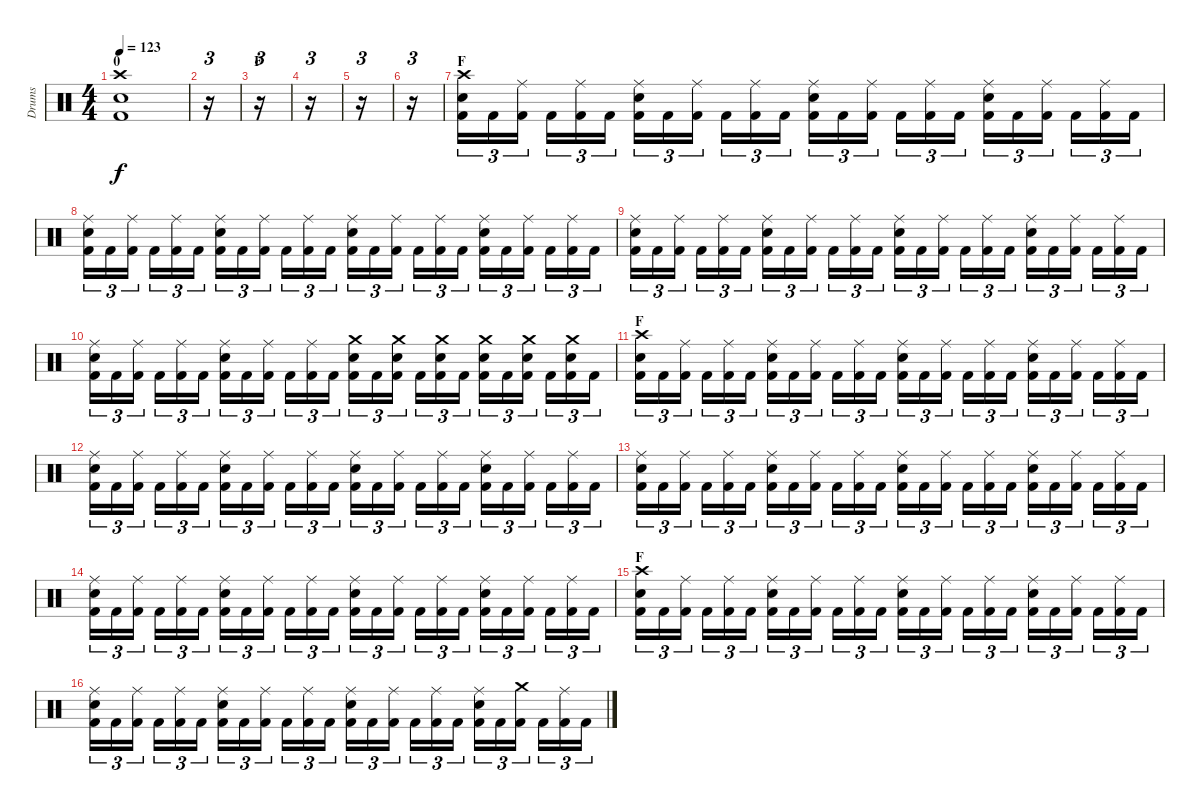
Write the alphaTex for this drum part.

\track ("Drums" "Drums") {instrument percussion}
\staff {score}
\articulation defaults
\ts (4 4)
\section ("" "0")
\tempo 123
\clef neutral
\ks c
("Crash high (hit)" "Snare (hit) 2" "Kick (hit) 2").1{dy f} |
r.16{tu (3 2)} |
\section ("" "F")
r.16{tu (3 2)} |
r.16{tu (3 2)} |
r.16{tu (3 2)} |
r.16{tu (3 2)} |
\section ("" "F")
("Crash high (hit)" "Snare (hit) 2" "Kick (hit) 2").16{tu (3 2)} "Kick (hit) 2".16{tu (3 2)} ("Ride (middle)" "Kick (hit) 2").16{tu (3 2)} "Kick (hit) 2".16{tu (3 2)} ("Ride (middle)" "Kick (hit) 2").16{tu (3 2)} "Kick (hit) 2".16{tu (3 2)} ("Ride (middle)" "Snare (hit) 2" "Kick (hit) 2").16{tu (3 2)} "Kick (hit) 2".16{tu (3 2)} ("Ride (middle)" "Kick (hit) 2").16{tu (3 2)} "Kick (hit) 2".16{tu (3 2)} ("Ride (middle)" "Kick (hit) 2").16{tu (3 2)} "Kick (hit) 2".16{tu (3 2)} ("Ride (middle)" "Snare (hit) 2" "Kick (hit) 2").16{tu (3 2)} "Kick (hit) 2".16{tu (3 2)} ("Ride (middle)" "Kick (hit) 2").16{tu (3 2)} "Kick (hit) 2".16{tu (3 2)} ("Ride (middle)" "Kick (hit) 2").16{tu (3 2)} "Kick (hit) 2".16{tu (3 2)} ("Ride (middle)" "Snare (hit) 2" "Kick (hit) 2").16{tu (3 2)} "Kick (hit) 2".16{tu (3 2)} ("Ride (middle)" "Kick (hit) 2").16{tu (3 2)} "Kick (hit) 2".16{tu (3 2)} ("Ride (middle)" "Kick (hit) 2").16{tu (3 2)} "Kick (hit) 2".16{tu (3 2)} |
("Ride (middle)" "Snare (hit) 2" "Kick (hit) 2").16{tu (3 2)} "Kick (hit) 2".16{tu (3 2)} ("Ride (middle)" "Kick (hit) 2").16{tu (3 2)} "Kick (hit) 2".16{tu (3 2)} ("Ride (middle)" "Kick (hit) 2").16{tu (3 2)} "Kick (hit) 2".16{tu (3 2)} ("Ride (middle)" "Snare (hit) 2" "Kick (hit) 2").16{tu (3 2)} "Kick (hit) 2".16{tu (3 2)} ("Ride (middle)" "Kick (hit) 2").16{tu (3 2)} "Kick (hit) 2".16{tu (3 2)} ("Ride (middle)" "Kick (hit) 2").16{tu (3 2)} "Kick (hit) 2".16{tu (3 2)} ("Ride (middle)" "Snare (hit) 2" "Kick (hit) 2").16{tu (3 2)} "Kick (hit) 2".16{tu (3 2)} ("Ride (middle)" "Kick (hit) 2").16{tu (3 2)} "Kick (hit) 2".16{tu (3 2)} ("Ride (middle)" "Kick (hit) 2").16{tu (3 2)} "Kick (hit) 2".16{tu (3 2)} ("Ride (middle)" "Snare (hit) 2" "Kick (hit) 2").16{tu (3 2)} "Kick (hit) 2".16{tu (3 2)} ("Ride (middle)" "Kick (hit) 2").16{tu (3 2)} "Kick (hit) 2".16{tu (3 2)} ("Ride (middle)" "Kick (hit) 2").16{tu (3 2)} "Kick (hit) 2".16{tu (3 2)} |
("Ride (middle)" "Snare (hit) 2" "Kick (hit) 2").16{tu (3 2)} "Kick (hit) 2".16{tu (3 2)} ("Ride (middle)" "Kick (hit) 2").16{tu (3 2)} "Kick (hit) 2".16{tu (3 2)} ("Ride (middle)" "Kick (hit) 2").16{tu (3 2)} "Kick (hit) 2".16{tu (3 2)} ("Ride (middle)" "Snare (hit) 2" "Kick (hit) 2").16{tu (3 2)} "Kick (hit) 2".16{tu (3 2)} ("Ride (middle)" "Kick (hit) 2").16{tu (3 2)} "Kick (hit) 2".16{tu (3 2)} ("Ride (middle)" "Kick (hit) 2").16{tu (3 2)} "Kick (hit) 2".16{tu (3 2)} ("Ride (middle)" "Snare (hit) 2" "Kick (hit) 2").16{tu (3 2)} "Kick (hit) 2".16{tu (3 2)} ("Ride (middle)" "Kick (hit) 2").16{tu (3 2)} "Kick (hit) 2".16{tu (3 2)} ("Ride (middle)" "Kick (hit) 2").16{tu (3 2)} "Kick (hit) 2".16{tu (3 2)} ("Ride (middle)" "Snare (hit) 2" "Kick (hit) 2").16{tu (3 2)} "Kick (hit) 2".16{tu (3 2)} ("Ride (middle)" "Kick (hit) 2").16{tu (3 2)} "Kick (hit) 2".16{tu (3 2)} ("Ride (middle)" "Kick (hit) 2").16{tu (3 2)} "Kick (hit) 2".16{tu (3 2)} |
("Ride (middle)" "Snare (hit) 2" "Kick (hit) 2").16{tu (3 2)} "Kick (hit) 2".16{tu (3 2)} ("Ride (middle)" "Kick (hit) 2").16{tu (3 2)} "Kick (hit) 2".16{tu (3 2)} ("Ride (middle)" "Kick (hit) 2").16{tu (3 2)} "Kick (hit) 2".16{tu (3 2)} ("Ride (middle)" "Snare (hit) 2" "Kick (hit) 2").16{tu (3 2)} "Kick (hit) 2".16{tu (3 2)} ("Ride (middle)" "Kick (hit) 2").16{tu (3 2)} "Kick (hit) 2".16{tu (3 2)} ("Ride (middle)" "Kick (hit) 2").16{tu (3 2)} "Kick (hit) 2".16{tu (3 2)} ("Crash medium (hit)" "Snare (hit) 2" "Kick (hit) 2").16{tu (3 2)} "Kick (hit) 2".16{tu (3 2)} ("Crash medium (hit)" "Snare (hit) 2" "Kick (hit) 2").16{tu (3 2)} "Kick (hit) 2".16{tu (3 2)} ("Crash medium (hit)" "Snare (hit) 2" "Kick (hit) 2").16{tu (3 2)} "Kick (hit) 2".16{tu (3 2)} ("Crash medium (hit)" "Snare (hit) 2" "Kick (hit) 2").16{tu (3 2)} "Kick (hit) 2".16{tu (3 2)} ("Crash medium (hit)" "Snare (hit) 2" "Kick (hit) 2").16{tu (3 2)} "Kick (hit) 2".16{tu (3 2)} ("Crash medium (hit)" "Snare (hit) 2" "Kick (hit) 2").16{tu (3 2)} "Kick (hit) 2".16{tu (3 2)} |
\section ("" "F")
("Crash high (hit)" "Snare (hit) 2" "Kick (hit) 2").16{tu (3 2)} "Kick (hit) 2".16{tu (3 2)} ("Ride (middle)" "Kick (hit) 2").16{tu (3 2)} "Kick (hit) 2".16{tu (3 2)} ("Ride (middle)" "Kick (hit) 2").16{tu (3 2)} "Kick (hit) 2".16{tu (3 2)} ("Ride (middle)" "Snare (hit) 2" "Kick (hit) 2").16{tu (3 2)} "Kick (hit) 2".16{tu (3 2)} ("Ride (middle)" "Kick (hit) 2").16{tu (3 2)} "Kick (hit) 2".16{tu (3 2)} ("Ride (middle)" "Kick (hit) 2").16{tu (3 2)} "Kick (hit) 2".16{tu (3 2)} ("Ride (middle)" "Snare (hit) 2" "Kick (hit) 2").16{tu (3 2)} "Kick (hit) 2".16{tu (3 2)} ("Ride (middle)" "Kick (hit) 2").16{tu (3 2)} "Kick (hit) 2".16{tu (3 2)} ("Ride (middle)" "Kick (hit) 2").16{tu (3 2)} "Kick (hit) 2".16{tu (3 2)} ("Ride (middle)" "Snare (hit) 2" "Kick (hit) 2").16{tu (3 2)} "Kick (hit) 2".16{tu (3 2)} ("Ride (middle)" "Kick (hit) 2").16{tu (3 2)} "Kick (hit) 2".16{tu (3 2)} ("Ride (middle)" "Kick (hit) 2").16{tu (3 2)} "Kick (hit) 2".16{tu (3 2)} |
("Ride (middle)" "Snare (hit) 2" "Kick (hit) 2").16{tu (3 2)} "Kick (hit) 2".16{tu (3 2)} ("Ride (middle)" "Kick (hit) 2").16{tu (3 2)} "Kick (hit) 2".16{tu (3 2)} ("Ride (middle)" "Kick (hit) 2").16{tu (3 2)} "Kick (hit) 2".16{tu (3 2)} ("Ride (middle)" "Snare (hit) 2" "Kick (hit) 2").16{tu (3 2)} "Kick (hit) 2".16{tu (3 2)} ("Ride (middle)" "Kick (hit) 2").16{tu (3 2)} "Kick (hit) 2".16{tu (3 2)} ("Ride (middle)" "Kick (hit) 2").16{tu (3 2)} "Kick (hit) 2".16{tu (3 2)} ("Ride (middle)" "Snare (hit) 2" "Kick (hit) 2").16{tu (3 2)} "Kick (hit) 2".16{tu (3 2)} ("Ride (middle)" "Kick (hit) 2").16{tu (3 2)} "Kick (hit) 2".16{tu (3 2)} ("Ride (middle)" "Kick (hit) 2").16{tu (3 2)} "Kick (hit) 2".16{tu (3 2)} ("Ride (middle)" "Snare (hit) 2" "Kick (hit) 2").16{tu (3 2)} "Kick (hit) 2".16{tu (3 2)} ("Ride (middle)" "Kick (hit) 2").16{tu (3 2)} "Kick (hit) 2".16{tu (3 2)} ("Ride (middle)" "Kick (hit) 2").16{tu (3 2)} "Kick (hit) 2".16{tu (3 2)} |
("Ride (middle)" "Snare (hit) 2" "Kick (hit) 2").16{tu (3 2)} "Kick (hit) 2".16{tu (3 2)} ("Ride (middle)" "Kick (hit) 2").16{tu (3 2)} "Kick (hit) 2".16{tu (3 2)} ("Ride (middle)" "Kick (hit) 2").16{tu (3 2)} "Kick (hit) 2".16{tu (3 2)} ("Ride (middle)" "Snare (hit) 2" "Kick (hit) 2").16{tu (3 2)} "Kick (hit) 2".16{tu (3 2)} ("Ride (middle)" "Kick (hit) 2").16{tu (3 2)} "Kick (hit) 2".16{tu (3 2)} ("Ride (middle)" "Kick (hit) 2").16{tu (3 2)} "Kick (hit) 2".16{tu (3 2)} ("Ride (middle)" "Snare (hit) 2" "Kick (hit) 2").16{tu (3 2)} "Kick (hit) 2".16{tu (3 2)} ("Ride (middle)" "Kick (hit) 2").16{tu (3 2)} "Kick (hit) 2".16{tu (3 2)} ("Ride (middle)" "Kick (hit) 2").16{tu (3 2)} "Kick (hit) 2".16{tu (3 2)} ("Ride (middle)" "Snare (hit) 2" "Kick (hit) 2").16{tu (3 2)} "Kick (hit) 2".16{tu (3 2)} ("Ride (middle)" "Kick (hit) 2").16{tu (3 2)} "Kick (hit) 2".16{tu (3 2)} ("Ride (middle)" "Kick (hit) 2").16{tu (3 2)} "Kick (hit) 2".16{tu (3 2)} |
("Ride (middle)" "Snare (hit) 2" "Kick (hit) 2").16{tu (3 2)} "Kick (hit) 2".16{tu (3 2)} ("Ride (middle)" "Kick (hit) 2").16{tu (3 2)} "Kick (hit) 2".16{tu (3 2)} ("Ride (middle)" "Kick (hit) 2").16{tu (3 2)} "Kick (hit) 2".16{tu (3 2)} ("Ride (middle)" "Snare (hit) 2" "Kick (hit) 2").16{tu (3 2)} "Kick (hit) 2".16{tu (3 2)} ("Ride (middle)" "Kick (hit) 2").16{tu (3 2)} "Kick (hit) 2".16{tu (3 2)} ("Ride (middle)" "Kick (hit) 2").16{tu (3 2)} "Kick (hit) 2".16{tu (3 2)} ("Ride (middle)" "Snare (hit) 2" "Kick (hit) 2").16{tu (3 2)} "Kick (hit) 2".16{tu (3 2)} ("Ride (middle)" "Kick (hit) 2").16{tu (3 2)} "Kick (hit) 2".16{tu (3 2)} ("Ride (middle)" "Kick (hit) 2").16{tu (3 2)} "Kick (hit) 2".16{tu (3 2)} ("Ride (middle)" "Snare (hit) 2" "Kick (hit) 2").16{tu (3 2)} "Kick (hit) 2".16{tu (3 2)} ("Ride (middle)" "Kick (hit) 2").16{tu (3 2)} "Kick (hit) 2".16{tu (3 2)} ("Ride (middle)" "Kick (hit) 2").16{tu (3 2)} "Kick (hit) 2".16{tu (3 2)} |
\section ("" "F")
("Crash high (hit)" "Snare (hit) 2" "Kick (hit) 2").16{tu (3 2)} "Kick (hit) 2".16{tu (3 2)} ("Ride (middle)" "Kick (hit) 2").16{tu (3 2)} "Kick (hit) 2".16{tu (3 2)} ("Ride (middle)" "Kick (hit) 2").16{tu (3 2)} "Kick (hit) 2".16{tu (3 2)} ("Ride (middle)" "Snare (hit) 2" "Kick (hit) 2").16{tu (3 2)} "Kick (hit) 2".16{tu (3 2)} ("Ride (middle)" "Kick (hit) 2").16{tu (3 2)} "Kick (hit) 2".16{tu (3 2)} ("Ride (middle)" "Kick (hit) 2").16{tu (3 2)} "Kick (hit) 2".16{tu (3 2)} ("Ride (middle)" "Snare (hit) 2" "Kick (hit) 2").16{tu (3 2)} "Kick (hit) 2".16{tu (3 2)} ("Ride (middle)" "Kick (hit) 2").16{tu (3 2)} "Kick (hit) 2".16{tu (3 2)} ("Ride (middle)" "Kick (hit) 2").16{tu (3 2)} "Kick (hit) 2".16{tu (3 2)} ("Ride (middle)" "Snare (hit) 2" "Kick (hit) 2").16{tu (3 2)} "Kick (hit) 2".16{tu (3 2)} ("Ride (middle)" "Kick (hit) 2").16{tu (3 2)} "Kick (hit) 2".16{tu (3 2)} ("Ride (middle)" "Kick (hit) 2").16{tu (3 2)} "Kick (hit) 2".16{tu (3 2)} |
("Ride (middle)" "Snare (hit) 2" "Kick (hit) 2").16{tu (3 2)} "Kick (hit) 2".16{tu (3 2)} ("Ride (middle)" "Kick (hit) 2").16{tu (3 2)} "Kick (hit) 2".16{tu (3 2)} ("Ride (middle)" "Kick (hit) 2").16{tu (3 2)} "Kick (hit) 2".16{tu (3 2)} ("Ride (middle)" "Snare (hit) 2" "Kick (hit) 2").16{tu (3 2)} "Kick (hit) 2".16{tu (3 2)} ("Ride (middle)" "Kick (hit) 2").16{tu (3 2)} "Kick (hit) 2".16{tu (3 2)} ("Ride (middle)" "Kick (hit) 2").16{tu (3 2)} "Kick (hit) 2".16{tu (3 2)} ("Ride (middle)" "Snare (hit) 2" "Kick (hit) 2").16{tu (3 2)} "Kick (hit) 2".16{tu (3 2)} ("Ride (middle)" "Kick (hit) 2").16{tu (3 2)} "Kick (hit) 2".16{tu (3 2)} ("Ride (middle)" "Kick (hit) 2").16{tu (3 2)} "Kick (hit) 2".16{tu (3 2)} ("Ride (middle)" "Snare (hit) 2" "Kick (hit) 2").16{tu (3 2)} "Kick (hit) 2".16{tu (3 2)} ("Crash medium (hit)" "Kick (hit) 2").16{tu (3 2)} "Kick (hit) 2".16{tu (3 2)} ("Ride (middle)" "Kick (hit) 2").16{tu (3 2)} "Kick (hit) 2".16{tu (3 2)}
